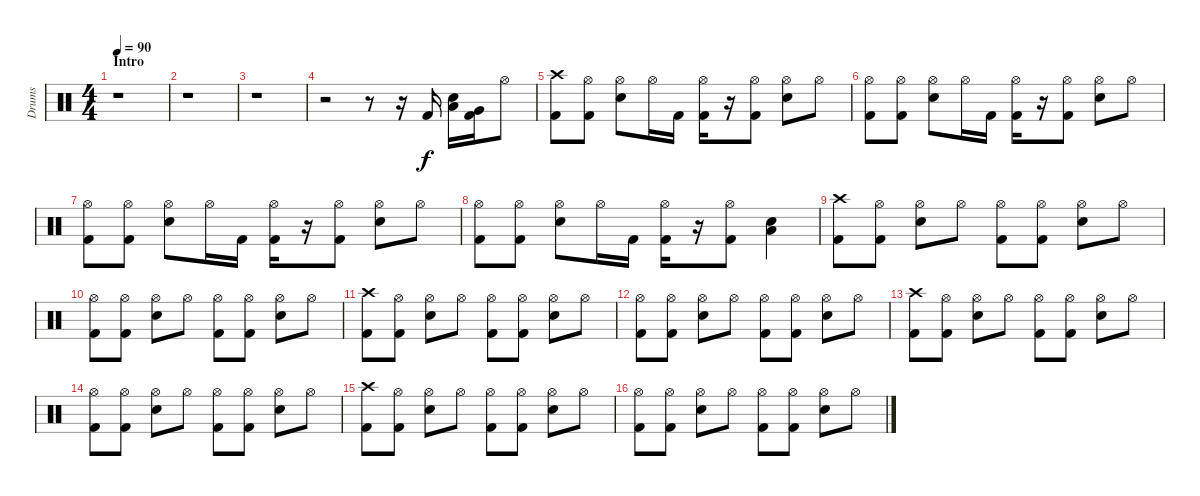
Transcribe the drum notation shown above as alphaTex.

\track ("Drums" "Drums") {instrument percussion}
\staff {score}
\articulation defaults
\ts (4 4)
\section ("" "Intro")
\tempo 90
\clef neutral
\ks c
r.1{dy f} |
r.1 |
r.1 |
r.2 r.8 r.16 "Kick (hit) 2".16 ("Low Tom (hit)" "Electric Snare (hit)").16 ("Very Low Tom (hit)" "Kick (hit) 2").16 "Hi-Hat (open)".8 |
("Crash high (hit)" "Kick (hit) 2").8 ("Hi-Hat (open)" "Kick (hit) 2").8 ("Hi-Hat (open)" "Electric Snare (hit)").8 "Hi-Hat (open)".16 "Kick (hit) 2".16 ("Hi-Hat (open)" "Kick (hit) 2").16 r.16 ("Hi-Hat (open)" "Kick (hit) 2").8 ("Hi-Hat (open)" "Electric Snare (hit)").8 "Hi-Hat (open)".8 |
("Hi-Hat (open)" "Kick (hit) 2").8 ("Hi-Hat (open)" "Kick (hit) 2").8 ("Hi-Hat (open)" "Electric Snare (hit)").8 "Hi-Hat (open)".16 "Kick (hit) 2".16 ("Hi-Hat (open)" "Kick (hit) 2").16 r.16 ("Hi-Hat (open)" "Kick (hit) 2").8 ("Hi-Hat (open)" "Electric Snare (hit)").8 "Hi-Hat (open)".8 |
("Hi-Hat (open)" "Kick (hit) 2").8 ("Hi-Hat (open)" "Kick (hit) 2").8 ("Hi-Hat (open)" "Electric Snare (hit)").8 "Hi-Hat (open)".16 "Kick (hit) 2".16 ("Hi-Hat (open)" "Kick (hit) 2").16 r.16 ("Hi-Hat (open)" "Kick (hit) 2").8 ("Hi-Hat (open)" "Electric Snare (hit)").8 "Hi-Hat (open)".8 |
("Hi-Hat (open)" "Kick (hit) 2").8 ("Hi-Hat (open)" "Kick (hit) 2").8 ("Hi-Hat (open)" "Electric Snare (hit)").8 "Hi-Hat (open)".16 "Kick (hit) 2".16 ("Hi-Hat (open)" "Kick (hit) 2").16 r.16 ("Hi-Hat (open)" "Kick (hit) 2").8 ("Low Tom (hit)" "Electric Snare (hit)").4 |
("Crash high (hit)" "Kick (hit) 2").8 ("Hi-Hat (open)" "Kick (hit) 2").8 ("Hi-Hat (open)" "Electric Snare (hit)").8 "Hi-Hat (open)".8 ("Hi-Hat (open)" "Kick (hit) 2").8 ("Hi-Hat (open)" "Kick (hit) 2").8 ("Hi-Hat (open)" "Electric Snare (hit)").8 "Hi-Hat (open)".8 |
("Hi-Hat (open)" "Kick (hit) 2").8 ("Hi-Hat (open)" "Kick (hit) 2").8 ("Hi-Hat (open)" "Electric Snare (hit)").8 "Hi-Hat (open)".8 ("Hi-Hat (open)" "Kick (hit) 2").8 ("Hi-Hat (open)" "Kick (hit) 2").8 ("Hi-Hat (open)" "Electric Snare (hit)").8 "Hi-Hat (open)".8 |
("Crash high (hit)" "Kick (hit) 2").8 ("Hi-Hat (open)" "Kick (hit) 2").8 ("Hi-Hat (open)" "Electric Snare (hit)").8 "Hi-Hat (open)".8 ("Hi-Hat (open)" "Kick (hit) 2").8 ("Hi-Hat (open)" "Kick (hit) 2").8 ("Hi-Hat (open)" "Electric Snare (hit)").8 "Hi-Hat (open)".8 |
("Hi-Hat (open)" "Kick (hit) 2").8 ("Hi-Hat (open)" "Kick (hit) 2").8 ("Hi-Hat (open)" "Electric Snare (hit)").8 "Hi-Hat (open)".8 ("Hi-Hat (open)" "Kick (hit) 2").8 ("Hi-Hat (open)" "Kick (hit) 2").8 ("Hi-Hat (open)" "Electric Snare (hit)").8 "Hi-Hat (open)".8 |
("Crash high (hit)" "Kick (hit) 2").8 ("Hi-Hat (open)" "Kick (hit) 2").8 ("Hi-Hat (open)" "Electric Snare (hit)").8 "Hi-Hat (open)".8 ("Hi-Hat (open)" "Kick (hit) 2").8 ("Hi-Hat (open)" "Kick (hit) 2").8 ("Hi-Hat (open)" "Electric Snare (hit)").8 "Hi-Hat (open)".8 |
("Hi-Hat (open)" "Kick (hit) 2").8 ("Hi-Hat (open)" "Kick (hit) 2").8 ("Hi-Hat (open)" "Electric Snare (hit)").8 "Hi-Hat (open)".8 ("Hi-Hat (open)" "Kick (hit) 2").8 ("Hi-Hat (open)" "Kick (hit) 2").8 ("Hi-Hat (open)" "Electric Snare (hit)").8 "Hi-Hat (open)".8 |
("Crash high (hit)" "Kick (hit) 2").8 ("Hi-Hat (open)" "Kick (hit) 2").8 ("Hi-Hat (open)" "Electric Snare (hit)").8 "Hi-Hat (open)".8 ("Hi-Hat (open)" "Kick (hit) 2").8 ("Hi-Hat (open)" "Kick (hit) 2").8 ("Hi-Hat (open)" "Electric Snare (hit)").8 "Hi-Hat (open)".8 |
("Hi-Hat (open)" "Kick (hit) 2").8 ("Hi-Hat (open)" "Kick (hit) 2").8 ("Hi-Hat (open)" "Electric Snare (hit)").8 "Hi-Hat (open)".8 ("Hi-Hat (open)" "Kick (hit) 2").8 ("Hi-Hat (open)" "Kick (hit) 2").8 ("Hi-Hat (open)" "Electric Snare (hit)").8 "Hi-Hat (open)".8
